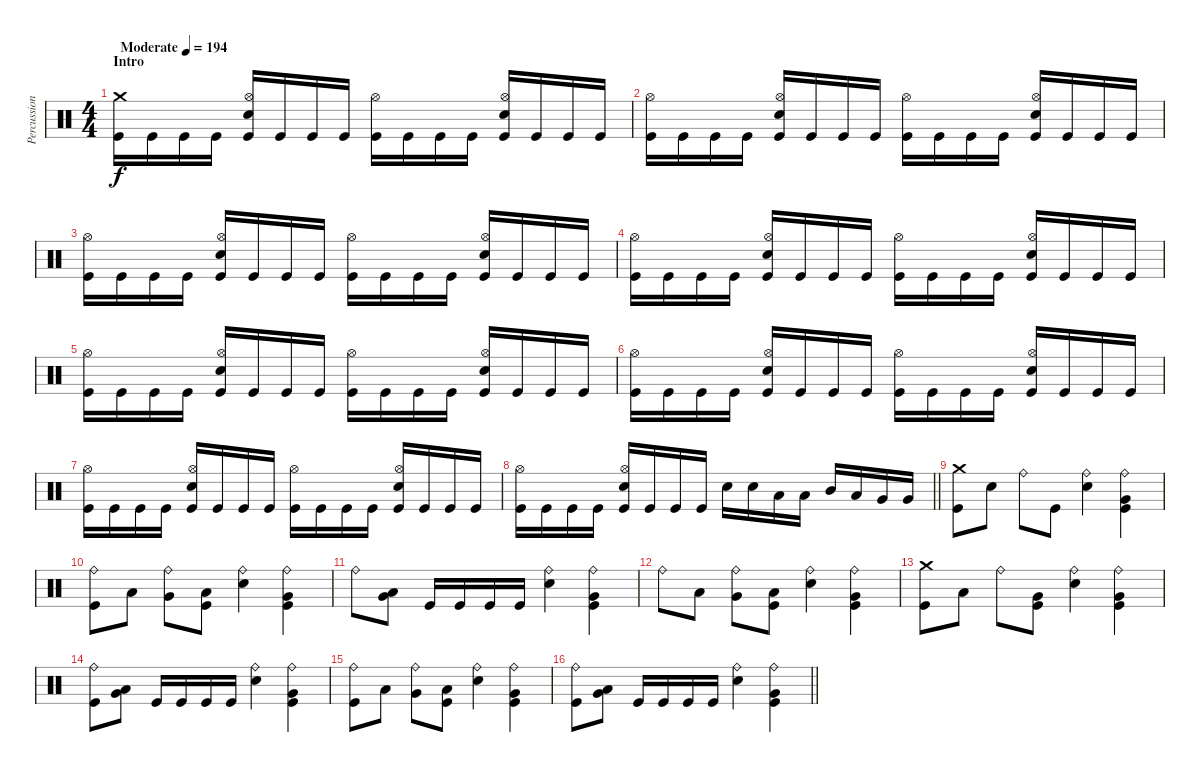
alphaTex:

\track ("Percussion" "Percussion") {instrument percussion}
\staff {score}
\articulation defaults
\ts (4 4)
\section ("" "Intro")
\tempo (194 "Moderate")
\clef neutral
\ks c
("Crash medium (hit)" "Kick (hit)").16{dy f} "Kick (hit)".16 "Kick (hit)".16 "Kick (hit)".16 ("Hi-Hat (open)" "Electric Snare (hit)" "Kick (hit)").16 "Kick (hit)".16 "Kick (hit)".16 "Kick (hit)".16 ("Hi-Hat (open)" "Kick (hit)").16 "Kick (hit)".16 "Kick (hit)".16 "Kick (hit)".16 ("Hi-Hat (open)" "Electric Snare (hit)" "Kick (hit)").16 "Kick (hit)".16 "Kick (hit)".16 "Kick (hit)".16 |
("Hi-Hat (open)" "Kick (hit)").16 "Kick (hit)".16 "Kick (hit)".16 "Kick (hit)".16 ("Hi-Hat (open)" "Electric Snare (hit)" "Kick (hit)").16 "Kick (hit)".16 "Kick (hit)".16 "Kick (hit)".16 ("Hi-Hat (open)" "Kick (hit)").16 "Kick (hit)".16 "Kick (hit)".16 "Kick (hit)".16 ("Hi-Hat (open)" "Electric Snare (hit)" "Kick (hit)").16 "Kick (hit)".16 "Kick (hit)".16 "Kick (hit)".16 |
("Hi-Hat (open)" "Kick (hit)").16 "Kick (hit)".16 "Kick (hit)".16 "Kick (hit)".16 ("Hi-Hat (open)" "Electric Snare (hit)" "Kick (hit)").16 "Kick (hit)".16 "Kick (hit)".16 "Kick (hit)".16 ("Hi-Hat (open)" "Kick (hit)").16 "Kick (hit)".16 "Kick (hit)".16 "Kick (hit)".16 ("Hi-Hat (open)" "Electric Snare (hit)" "Kick (hit)").16 "Kick (hit)".16 "Kick (hit)".16 "Kick (hit)".16 |
("Hi-Hat (open)" "Kick (hit)").16 "Kick (hit)".16 "Kick (hit)".16 "Kick (hit)".16 ("Hi-Hat (open)" "Electric Snare (hit)" "Kick (hit)").16 "Kick (hit)".16 "Kick (hit)".16 "Kick (hit)".16 ("Hi-Hat (open)" "Kick (hit)").16 "Kick (hit)".16 "Kick (hit)".16 "Kick (hit)".16 ("Hi-Hat (open)" "Electric Snare (hit)" "Kick (hit)").16 "Kick (hit)".16 "Kick (hit)".16 "Kick (hit)".16 |
("Hi-Hat (open)" "Kick (hit)").16 "Kick (hit)".16 "Kick (hit)".16 "Kick (hit)".16 ("Hi-Hat (open)" "Electric Snare (hit)" "Kick (hit)").16 "Kick (hit)".16 "Kick (hit)".16 "Kick (hit)".16 ("Hi-Hat (open)" "Kick (hit)").16 "Kick (hit)".16 "Kick (hit)".16 "Kick (hit)".16 ("Hi-Hat (open)" "Electric Snare (hit)" "Kick (hit)").16 "Kick (hit)".16 "Kick (hit)".16 "Kick (hit)".16 |
("Hi-Hat (open)" "Kick (hit)").16 "Kick (hit)".16 "Kick (hit)".16 "Kick (hit)".16 ("Hi-Hat (open)" "Electric Snare (hit)" "Kick (hit)").16 "Kick (hit)".16 "Kick (hit)".16 "Kick (hit)".16 ("Hi-Hat (open)" "Kick (hit)").16 "Kick (hit)".16 "Kick (hit)".16 "Kick (hit)".16 ("Hi-Hat (open)" "Electric Snare (hit)" "Kick (hit)").16 "Kick (hit)".16 "Kick (hit)".16 "Kick (hit)".16 |
("Hi-Hat (open)" "Kick (hit)").16 "Kick (hit)".16 "Kick (hit)".16 "Kick (hit)".16 ("Hi-Hat (open)" "Electric Snare (hit)" "Kick (hit)").16 "Kick (hit)".16 "Kick (hit)".16 "Kick (hit)".16 ("Hi-Hat (open)" "Kick (hit)").16 "Kick (hit)".16 "Kick (hit)".16 "Kick (hit)".16 ("Hi-Hat (open)" "Electric Snare (hit)" "Kick (hit)").16 "Kick (hit)".16 "Kick (hit)".16 "Kick (hit)".16 |
\barLineRight lightlight
("Hi-Hat (open)" "Kick (hit)").16 "Kick (hit)".16 "Kick (hit)".16 "Kick (hit)".16 ("Hi-Hat (open)" "Electric Snare (hit)" "Kick (hit)").16 "Kick (hit)".16 "Kick (hit)".16 "Kick (hit)".16 "Electric Snare (hit)".16 "Electric Snare (hit)".16 "Low Tom (hit)".16 "Low Tom (hit)".16 "Mid Tom (hit)".16 "Low Tom (hit)".16 "Very Low Tom (hit)".16 "Very Low Tom (hit)".16 |
("Crash medium (hit)" "Kick (hit)").8 "Electric Snare (hit)".8 "Ride (bell)".8 "Kick (hit)".8 ("Ride (bell)" "Electric Snare (hit)").4 ("Ride (bell)" "Very Low Tom (hit)" "Kick (hit)").4 |
("Ride (bell)" "Kick (hit)").8 "Low Tom (hit)".8 ("Ride (bell)" "Very Low Tom (hit)").8 ("Low Floor Tom (hit)" "Kick (hit)").8 ("Ride (bell)" "Electric Snare (hit)").4 ("Ride (bell)" "Very Low Tom (hit)" "Kick (hit)").4 |
"Ride (bell)".8 ("Low Tom (hit)" "Very Low Tom (hit)").8 "Kick (hit)".16 "Kick (hit)".16 "Kick (hit)".16 "Kick (hit)".16 ("Ride (bell)" "Electric Snare (hit)").4 ("Ride (bell)" "Very Low Tom (hit)" "Kick (hit)").4 |
"Ride (bell)".8 "Low Tom (hit)".8 ("Ride (bell)" "Very Low Tom (hit)").8 ("Low Floor Tom (hit)" "Kick (hit)").8 ("Ride (bell)" "Electric Snare (hit)").4 ("Ride (bell)" "Very Low Tom (hit)" "Kick (hit)").4 |
("Crash medium (hit)" "Kick (hit)").8 "Low Tom (hit)".8 "Ride (bell)".8 ("Very Low Tom (hit)" "Kick (hit)").8 ("Ride (bell)" "Electric Snare (hit)").4 ("Ride (bell)" "Very Low Tom (hit)" "Kick (hit)").4 |
("Ride (bell)" "Kick (hit)").8 ("Low Tom (hit)" "Very Low Tom (hit)").8 "Kick (hit)".16 "Kick (hit)".16 "Kick (hit)".16 "Kick (hit)".16 ("Ride (bell)" "Electric Snare (hit)").4 ("Ride (bell)" "Very Low Tom (hit)" "Kick (hit)").4 |
("Ride (bell)" "Kick (hit)").8 "Low Tom (hit)".8 ("Ride (bell)" "Very Low Tom (hit)").8 ("Low Floor Tom (hit)" "Kick (hit)").8 ("Ride (bell)" "Electric Snare (hit)").4 ("Ride (bell)" "Very Low Tom (hit)" "Kick (hit)").4 |
\barLineRight lightlight
("Ride (bell)" "Kick (hit)").8 ("Low Tom (hit)" "Very Low Tom (hit)").8 "Kick (hit)".16 "Kick (hit)".16 "Kick (hit)".16 "Kick (hit)".16 ("Ride (bell)" "Electric Snare (hit)").4 ("Ride (bell)" "Very Low Tom (hit)" "Kick (hit)").4
